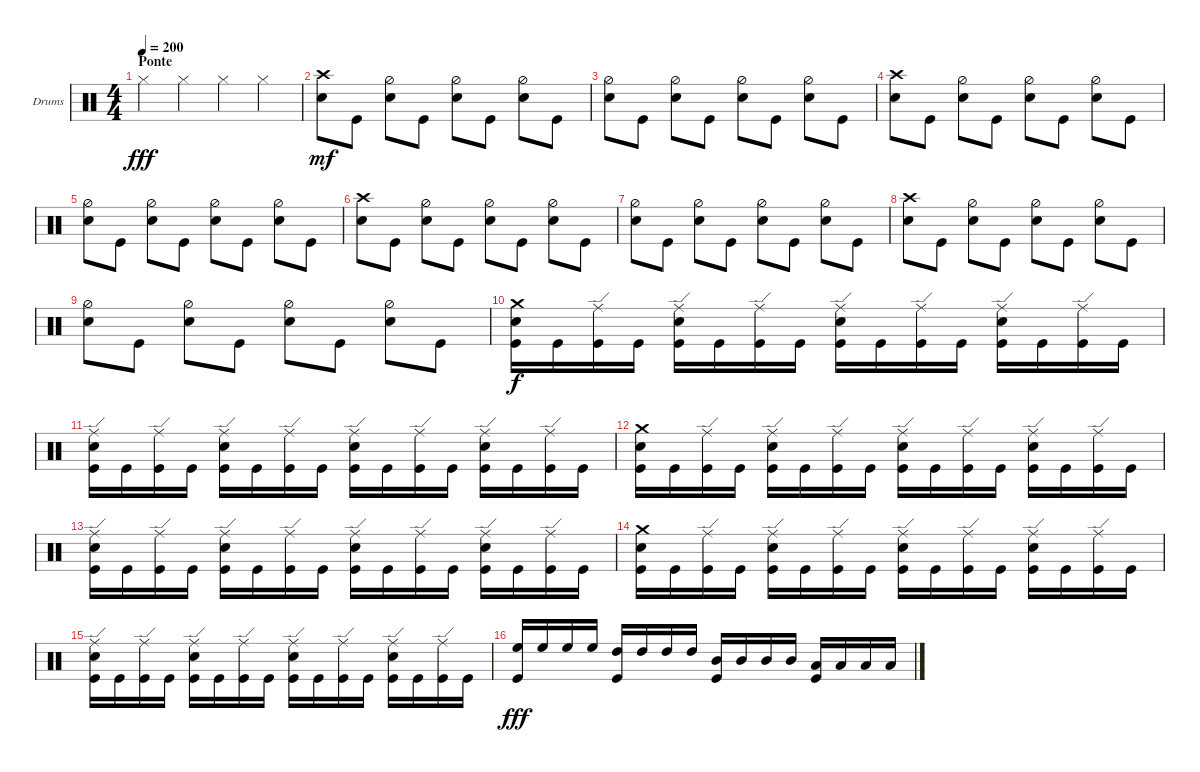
\defaultSystemsLayout 4
\bracketExtendMode groupsimilarinstruments
\firstSystemTrackNameOrientation horizontal
\otherSystemsTrackNameOrientation horizontal
\track ("Drumkit" "Drums") {instrument percussion}
\staff {score}
\articulation defaults
\ts (4 4)
\section ("" "Ponte")
\tempo 200
\clef neutral
\ks c "Hi-Hat (closed)".4{dy fff} "Hi-Hat (closed)".4 "Hi-Hat (closed)".4 "Hi-Hat (closed)".4
|
("Snare (hit) 2" "Crash high (hit)").8{dy mf} "Kick (hit)".8 ("Snare (hit) 2" "Hi-Hat (half)").8 "Kick (hit)".8 ("Snare (hit) 2" "Hi-Hat (half)").8 "Kick (hit)".8 ("Snare (hit) 2" "Hi-Hat (half)").8 "Kick (hit)".8 |
("Snare (hit) 2" "Hi-Hat (half)").8 "Kick (hit)".8 ("Snare (hit) 2" "Hi-Hat (half)").8 "Kick (hit)".8 ("Snare (hit) 2" "Hi-Hat (half)").8 "Kick (hit)".8 ("Snare (hit) 2" "Hi-Hat (half)").8 "Kick (hit)".8 |
("Snare (hit) 2" "Crash high (hit)").8 "Kick (hit)".8 ("Snare (hit) 2" "Hi-Hat (half)").8 "Kick (hit)".8 ("Snare (hit) 2" "Hi-Hat (half)").8 "Kick (hit)".8 ("Snare (hit) 2" "Hi-Hat (half)").8 "Kick (hit)".8 |
("Snare (hit) 2" "Hi-Hat (half)").8 "Kick (hit)".8 ("Snare (hit) 2" "Hi-Hat (half)").8 "Kick (hit)".8 ("Snare (hit) 2" "Hi-Hat (half)").8 "Kick (hit)".8 ("Snare (hit) 2" "Hi-Hat (half)").8 "Kick (hit)".8 |
("Snare (hit) 2" "Crash high (hit)").8 "Kick (hit)".8 ("Snare (hit) 2" "Hi-Hat (half)").8 "Kick (hit)".8 ("Snare (hit) 2" "Hi-Hat (half)").8 "Kick (hit)".8 ("Snare (hit) 2" "Hi-Hat (half)").8 "Kick (hit)".8 |
("Snare (hit) 2" "Hi-Hat (half)").8 "Kick (hit)".8 ("Snare (hit) 2" "Hi-Hat (half)").8 "Kick (hit)".8 ("Snare (hit) 2" "Hi-Hat (half)").8 "Kick (hit)".8 ("Snare (hit) 2" "Hi-Hat (half)").8 "Kick (hit)".8 |
("Snare (hit) 2" "Crash high (hit)").8 "Kick (hit)".8 ("Snare (hit) 2" "Hi-Hat (half)").8 "Kick (hit)".8 ("Snare (hit) 2" "Hi-Hat (half)").8 "Kick (hit)".8 ("Snare (hit) 2" "Hi-Hat (half)").8 "Kick (hit)".8 |
("Snare (hit) 2" "Hi-Hat (half)").8 "Kick (hit)".8 ("Snare (hit) 2" "Hi-Hat (half)").8 "Kick (hit)".8 ("Snare (hit) 2" "Hi-Hat (half)").8 "Kick (hit)".8 ("Snare (hit) 2" "Hi-Hat (half)").8 "Kick (hit)".8 |
("Crash medium (hit)" "Snare (hit) 2" "Kick (hit)").16{dy f} "Kick (hit)".16 ("Ride (edge)" "Kick (hit)").16 "Kick (hit)".16 ("Ride (edge)" "Snare (hit) 2" "Kick (hit)").16 "Kick (hit)".16 ("Ride (edge)" "Kick (hit)").16 "Kick (hit)".16 ("Ride (edge)" "Snare (hit) 2" "Kick (hit)").16 "Kick (hit)".16 ("Ride (edge)" "Kick (hit)").16 "Kick (hit)".16 ("Ride (edge)" "Snare (hit) 2" "Kick (hit)").16 "Kick (hit)".16 ("Ride (edge)" "Kick (hit)").16 "Kick (hit)".16 |
("Snare (hit) 2" "Kick (hit)" "Ride (edge)").16 "Kick (hit)".16 ("Ride (edge)" "Kick (hit)").16 "Kick (hit)".16 ("Ride (edge)" "Snare (hit) 2" "Kick (hit)").16 "Kick (hit)".16 ("Ride (edge)" "Kick (hit)").16 "Kick (hit)".16 ("Ride (edge)" "Snare (hit) 2" "Kick (hit)").16 "Kick (hit)".16 ("Ride (edge)" "Kick (hit)").16 "Kick (hit)".16 ("Ride (edge)" "Snare (hit) 2" "Kick (hit)").16 "Kick (hit)".16 ("Ride (edge)" "Kick (hit)").16 "Kick (hit)".16 |
("Crash medium (hit)" "Snare (hit) 2" "Kick (hit)").16 "Kick (hit)".16 ("Ride (edge)" "Kick (hit)").16 "Kick (hit)".16 ("Ride (edge)" "Snare (hit) 2" "Kick (hit)").16 "Kick (hit)".16 ("Ride (edge)" "Kick (hit)").16 "Kick (hit)".16 ("Ride (edge)" "Snare (hit) 2" "Kick (hit)").16 "Kick (hit)".16 ("Ride (edge)" "Kick (hit)").16 "Kick (hit)".16 ("Ride (edge)" "Snare (hit) 2" "Kick (hit)").16 "Kick (hit)".16 ("Ride (edge)" "Kick (hit)").16 "Kick (hit)".16 |
("Snare (hit) 2" "Kick (hit)" "Ride (edge)").16 "Kick (hit)".16 ("Ride (edge)" "Kick (hit)").16 "Kick (hit)".16 ("Ride (edge)" "Snare (hit) 2" "Kick (hit)").16 "Kick (hit)".16 ("Ride (edge)" "Kick (hit)").16 "Kick (hit)".16 ("Ride (edge)" "Snare (hit) 2" "Kick (hit)").16 "Kick (hit)".16 ("Ride (edge)" "Kick (hit)").16 "Kick (hit)".16 ("Ride (edge)" "Snare (hit) 2" "Kick (hit)").16 "Kick (hit)".16 ("Ride (edge)" "Kick (hit)").16 "Kick (hit)".16 |
("Crash medium (hit)" "Snare (hit) 2" "Kick (hit)").16 "Kick (hit)".16 ("Ride (edge)" "Kick (hit)").16 "Kick (hit)".16 ("Ride (edge)" "Snare (hit) 2" "Kick (hit)").16 "Kick (hit)".16 ("Ride (edge)" "Kick (hit)").16 "Kick (hit)".16 ("Ride (edge)" "Snare (hit) 2" "Kick (hit)").16 "Kick (hit)".16 ("Ride (edge)" "Kick (hit)").16 "Kick (hit)".16 ("Ride (edge)" "Snare (hit) 2" "Kick (hit)").16 "Kick (hit)".16 ("Ride (edge)" "Kick (hit)").16 "Kick (hit)".16 |
("Snare (hit) 2" "Kick (hit)" "Ride (edge)").16 "Kick (hit)".16 ("Ride (edge)" "Kick (hit)").16 "Kick (hit)".16 ("Ride (edge)" "Snare (hit) 2" "Kick (hit)").16 "Kick (hit)".16 ("Ride (edge)" "Kick (hit)").16 "Kick (hit)".16 ("Ride (edge)" "Snare (hit) 2" "Kick (hit)").16 "Kick (hit)".16 ("Ride (edge)" "Kick (hit)").16 "Kick (hit)".16 ("Ride (edge)" "Snare (hit) 2" "Kick (hit)").16 "Kick (hit)".16 ("Ride (edge)" "Kick (hit)").16 "Kick (hit)".16 |
("High Floor Tom (hit)" "Kick (hit)").16{dy fff} "High Floor Tom (hit)".16 "High Floor Tom (hit)".16 "High Floor Tom (hit)".16 ("High Tom (hit)" "Kick (hit)").16 "High Tom (hit)".16 "High Tom (hit)".16 "High Tom (hit)".16 ("Mid Tom (hit)" "Kick (hit)").16 "Mid Tom (hit)".16 "Mid Tom (hit)".16 "Mid Tom (hit)".16 ("Low Tom (hit)" "Kick (hit)").16 "Low Tom (hit)".16 "Low Tom (hit)".16 "Low Tom (hit)".16
